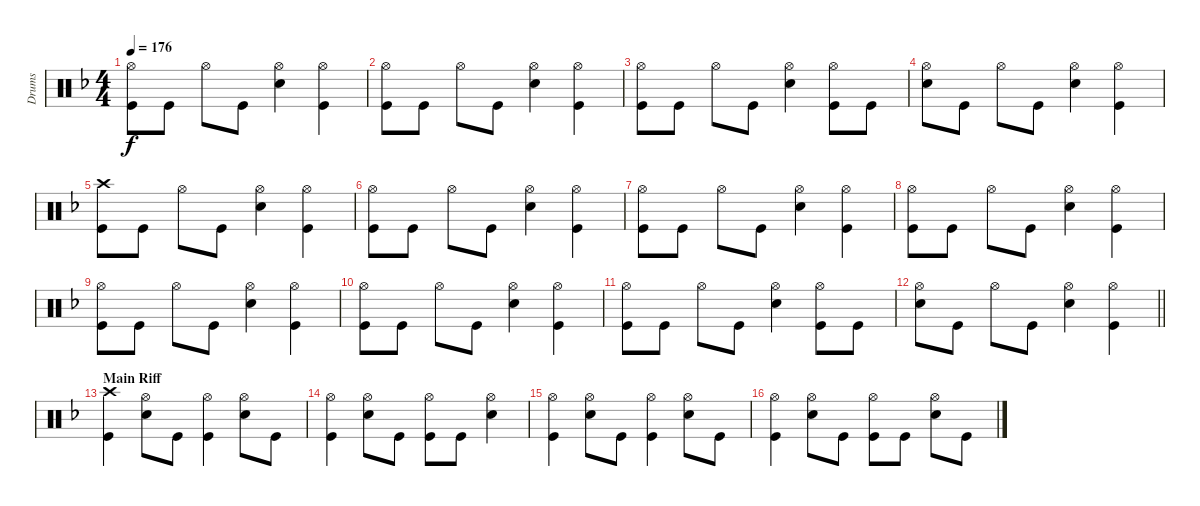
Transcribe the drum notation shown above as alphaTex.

\track ("Drums" "Drums") {instrument percussion}
\staff {score}
\articulation defaults
\ts (4 4)
\tempo 176
\clef neutral
\ks f
("Hi-Hat (open)" "Kick (hit)").8{dy f} "Kick (hit)".8 "Hi-Hat (open)".8 "Kick (hit)".8 ("Hi-Hat (open)" "Snare (hit) 2").4 ("Hi-Hat (open)" "Kick (hit)").4 |
("Hi-Hat (open)" "Kick (hit)").8 "Kick (hit)".8 "Hi-Hat (open)".8 "Kick (hit)".8 ("Hi-Hat (open)" "Snare (hit) 2").4 ("Hi-Hat (open)" "Kick (hit)").4 |
("Hi-Hat (open)" "Kick (hit)").8 "Kick (hit)".8 "Hi-Hat (open)".8 "Kick (hit)".8 ("Hi-Hat (open)" "Snare (hit) 2").4 ("Hi-Hat (open)" "Kick (hit)").8 "Kick (hit)".8 |
("Hi-Hat (open)" "Snare (hit) 2").8 "Kick (hit)".8 "Hi-Hat (open)".8 "Kick (hit)".8 ("Hi-Hat (open)" "Snare (hit) 2").4 ("Hi-Hat (open)" "Kick (hit)").4 |
("Crash high (hit)" "Kick (hit)").8 "Kick (hit)".8 "Hi-Hat (open)".8 "Kick (hit)".8 ("Hi-Hat (open)" "Snare (hit) 2").4 ("Hi-Hat (open)" "Kick (hit)").4 |
("Hi-Hat (open)" "Kick (hit)").8 "Kick (hit)".8 "Hi-Hat (open)".8 "Kick (hit)".8 ("Hi-Hat (open)" "Snare (hit) 2").4 ("Hi-Hat (open)" "Kick (hit)").4 |
("Hi-Hat (open)" "Kick (hit)").8 "Kick (hit)".8 "Hi-Hat (open)".8 "Kick (hit)".8 ("Hi-Hat (open)" "Snare (hit) 2").4 ("Hi-Hat (open)" "Kick (hit)").4 |
("Hi-Hat (open)" "Kick (hit)").8 "Kick (hit)".8 "Hi-Hat (open)".8 "Kick (hit)".8 ("Hi-Hat (open)" "Snare (hit) 2").4 ("Hi-Hat (open)" "Kick (hit)").4 |
("Hi-Hat (open)" "Kick (hit)").8 "Kick (hit)".8 "Hi-Hat (open)".8 "Kick (hit)".8 ("Hi-Hat (open)" "Snare (hit) 2").4 ("Hi-Hat (open)" "Kick (hit)").4 |
("Hi-Hat (open)" "Kick (hit)").8 "Kick (hit)".8 "Hi-Hat (open)".8 "Kick (hit)".8 ("Hi-Hat (open)" "Snare (hit) 2").4 ("Hi-Hat (open)" "Kick (hit)").4 |
("Hi-Hat (open)" "Kick (hit)").8 "Kick (hit)".8 "Hi-Hat (open)".8 "Kick (hit)".8 ("Hi-Hat (open)" "Snare (hit) 2").4 ("Hi-Hat (open)" "Kick (hit)").8 "Kick (hit)".8 |
\barLineRight lightlight
("Hi-Hat (open)" "Snare (hit) 2").8 "Kick (hit)".8 "Hi-Hat (open)".8 "Kick (hit)".8 ("Hi-Hat (open)" "Snare (hit) 2").4 ("Hi-Hat (open)" "Kick (hit)").4 |
\section ("" "Main Riff")
("Crash high (hit)" "Kick (hit)").4 ("Hi-Hat (open)" "Snare (hit) 2").8 "Kick (hit)".8 ("Hi-Hat (open)" "Kick (hit)").4 ("Hi-Hat (open)" "Snare (hit) 2").8 "Kick (hit)".8 |
("Hi-Hat (open)" "Kick (hit)").4 ("Hi-Hat (open)" "Snare (hit) 2").8 "Kick (hit)".8 ("Hi-Hat (open)" "Kick (hit)").8 "Kick (hit)".8 ("Hi-Hat (open)" "Snare (hit) 2").4 |
("Hi-Hat (open)" "Kick (hit)").4 ("Hi-Hat (open)" "Snare (hit) 2").8 "Kick (hit)".8 ("Hi-Hat (open)" "Kick (hit)").4 ("Hi-Hat (open)" "Snare (hit) 2").8 "Kick (hit)".8 |
("Hi-Hat (open)" "Kick (hit)").4 ("Hi-Hat (open)" "Snare (hit) 2").8 "Kick (hit)".8 ("Hi-Hat (open)" "Kick (hit)").8 "Kick (hit)".8 ("Hi-Hat (open)" "Snare (hit) 2").8 "Kick (hit)".8
